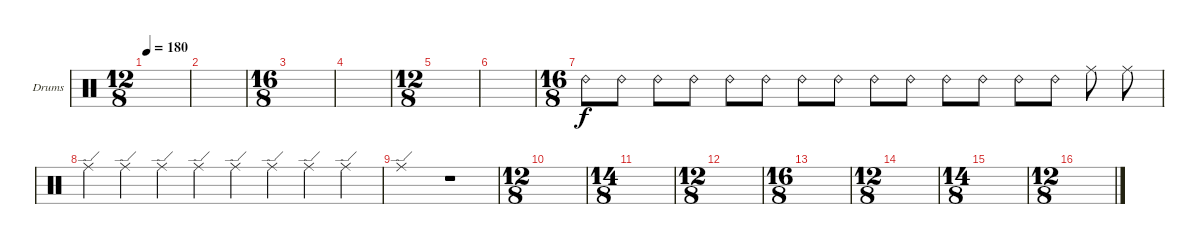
\defaultSystemsLayout 4
\bracketExtendMode groupsimilarinstruments
\firstSystemTrackNameOrientation horizontal
\otherSystemsTrackNameOrientation horizontal
\track ("Ride" "Drums") {instrument percussion}
\staff {score}
\articulation defaults
\ts (12 8)
\tempo 180
\clef neutral
\ks c
|
|
\ts (16 8)
\beaming (8 2 2 2 2 2 2 2 1 1)
|
|
\ts (12 8)
|
|
\ts (16 8)
"Ride (bell) 2".8 "Ride (bell) 2".8 "Ride (bell) 2".8 "Ride (bell) 2".8 "Ride (bell) 2".8 "Ride (bell) 2".8 "Ride (bell) 2".8 "Ride (bell) 2".8 "Ride (bell) 2".8 "Ride (bell) 2".8 "Ride (bell) 2".8 "Ride (bell) 2".8 "Ride (bell) 2".8 "Ride (bell) 2".8 "Ride (middle)".8 "Ride (middle)".8 |
"Ride (edge)".4 "Ride (edge)".4 "Ride (edge)".4 "Ride (edge)".4 "Ride (edge)".4 "Ride (edge)".4 "Ride (edge)".4 "Ride (edge)".4 |
"Ride (edge)".1 r.1 |
\ts (12 8)
|
\ts (14 8)
|
\ts (12 8)
|
\ts (16 8)
|
\ts (12 8)
|
\ts (14 8)
|
\ts (12 8)
